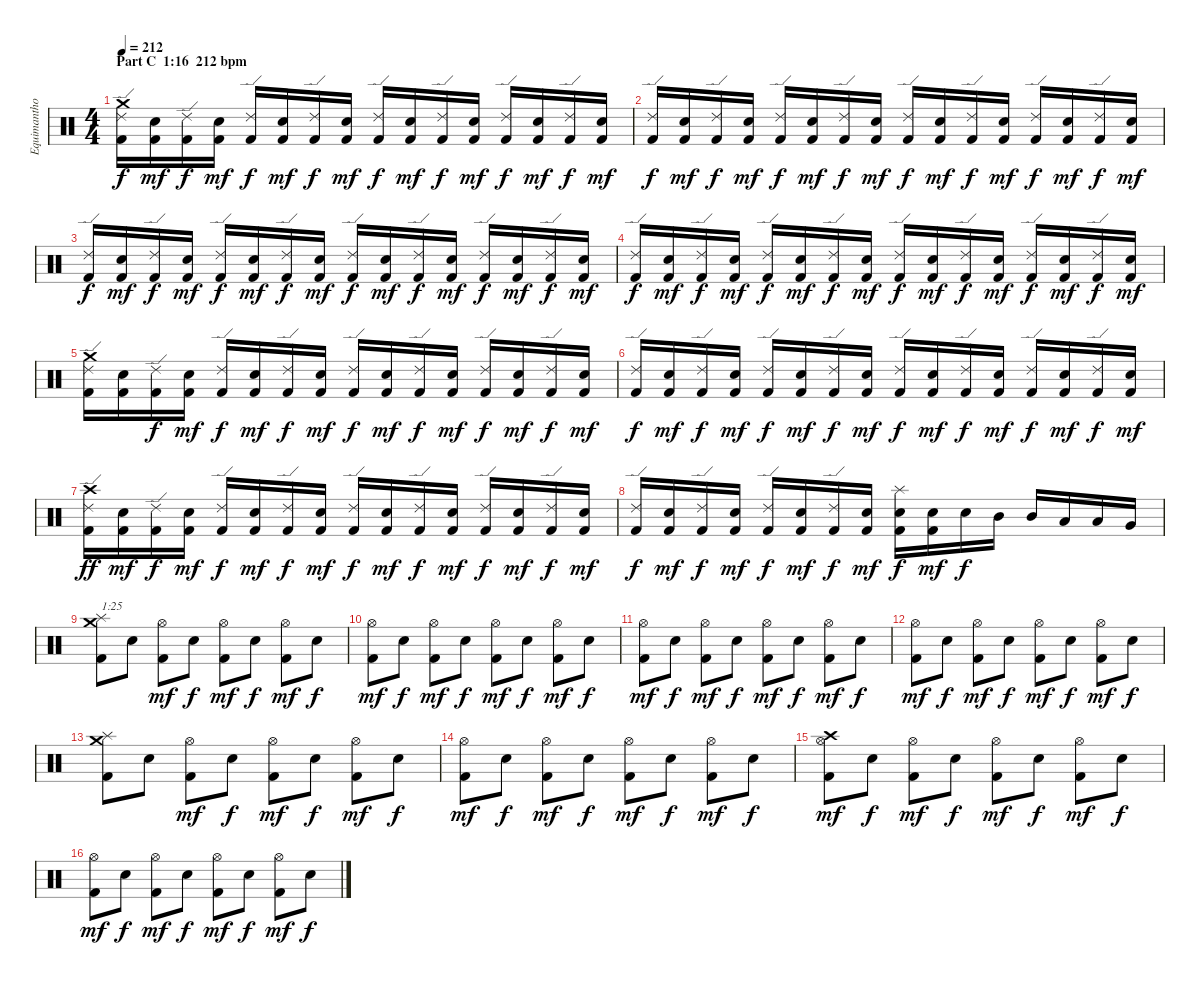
\track ("Equimanthorn" "Equimantho") {instrument percussion}
\staff {score}
\articulation defaults
\ts (4 4)
\section ("" "Part C  1:16  212 bpm")
\tempo 212
\clef neutral
\ks c
("Kick (hit) 2" "Ride (edge) 2" "Crash medium (hit)").16{dy f} ("Kick (hit) 2" "Electric Snare (hit)").16{dy mf} ("Kick (hit) 2" "Ride (edge) 2").16{dy f} ("Kick (hit) 2" "Electric Snare (hit)").16{dy mf} ("Kick (hit) 2" "Ride (edge) 2").16{dy f} ("Kick (hit) 2" "Electric Snare (hit)").16{dy mf} ("Kick (hit) 2" "Ride (edge) 2").16{dy f} ("Kick (hit) 2" "Electric Snare (hit)").16{dy mf} ("Kick (hit) 2" "Ride (edge) 2").16{dy f} ("Kick (hit) 2" "Electric Snare (hit)").16{dy mf} ("Kick (hit) 2" "Ride (edge) 2").16{dy f} ("Kick (hit) 2" "Electric Snare (hit)").16{dy mf} ("Kick (hit) 2" "Ride (edge) 2").16{dy f} ("Kick (hit) 2" "Electric Snare (hit)").16{dy mf} ("Kick (hit) 2" "Ride (edge) 2").16{dy f} ("Kick (hit) 2" "Electric Snare (hit)").16{dy mf} |
("Kick (hit) 2" "Ride (edge) 2").16{dy f} ("Kick (hit) 2" "Electric Snare (hit)").16{dy mf} ("Kick (hit) 2" "Ride (edge) 2").16{dy f} ("Kick (hit) 2" "Electric Snare (hit)").16{dy mf} ("Kick (hit) 2" "Ride (edge) 2").16{dy f} ("Kick (hit) 2" "Electric Snare (hit)").16{dy mf} ("Kick (hit) 2" "Ride (edge) 2").16{dy f} ("Kick (hit) 2" "Electric Snare (hit)").16{dy mf} ("Kick (hit) 2" "Ride (edge) 2").16{dy f} ("Kick (hit) 2" "Electric Snare (hit)").16{dy mf} ("Kick (hit) 2" "Ride (edge) 2").16{dy f} ("Kick (hit) 2" "Electric Snare (hit)").16{dy mf} ("Kick (hit) 2" "Ride (edge) 2").16{dy f} ("Kick (hit) 2" "Electric Snare (hit)").16{dy mf} ("Kick (hit) 2" "Ride (edge) 2").16{dy f} ("Kick (hit) 2" "Electric Snare (hit)").16{dy mf} |
("Kick (hit) 2" "Ride (edge) 2").16{dy f} ("Kick (hit) 2" "Electric Snare (hit)").16{dy mf} ("Kick (hit) 2" "Ride (edge) 2").16{dy f} ("Kick (hit) 2" "Electric Snare (hit)").16{dy mf} ("Kick (hit) 2" "Ride (edge) 2").16{dy f} ("Kick (hit) 2" "Electric Snare (hit)").16{dy mf} ("Kick (hit) 2" "Ride (edge) 2").16{dy f} ("Kick (hit) 2" "Electric Snare (hit)").16{dy mf} ("Kick (hit) 2" "Ride (edge) 2").16{dy f} ("Kick (hit) 2" "Electric Snare (hit)").16{dy mf} ("Kick (hit) 2" "Ride (edge) 2").16{dy f} ("Kick (hit) 2" "Electric Snare (hit)").16{dy mf} ("Kick (hit) 2" "Ride (edge) 2").16{dy f} ("Kick (hit) 2" "Electric Snare (hit)").16{dy mf} ("Kick (hit) 2" "Ride (edge) 2").16{dy f} ("Kick (hit) 2" "Electric Snare (hit)").16{dy mf} |
("Kick (hit) 2" "Ride (edge) 2").16{dy f} ("Kick (hit) 2" "Electric Snare (hit)").16{dy mf} ("Kick (hit) 2" "Ride (edge) 2").16{dy f} ("Kick (hit) 2" "Electric Snare (hit)").16{dy mf} ("Kick (hit) 2" "Ride (edge) 2").16{dy f} ("Kick (hit) 2" "Electric Snare (hit)").16{dy mf} ("Kick (hit) 2" "Ride (edge) 2").16{dy f} ("Kick (hit) 2" "Electric Snare (hit)").16{dy mf} ("Kick (hit) 2" "Ride (edge) 2").16{dy f} ("Kick (hit) 2" "Electric Snare (hit)").16{dy mf} ("Kick (hit) 2" "Ride (edge) 2").16{dy f} ("Kick (hit) 2" "Electric Snare (hit)").16{dy mf} ("Kick (hit) 2" "Ride (edge) 2").16{dy f} ("Kick (hit) 2" "Electric Snare (hit)").16{dy mf} ("Kick (hit) 2" "Ride (edge) 2").16{dy f} ("Kick (hit) 2" "Electric Snare (hit)").16{dy mf} |
("Kick (hit) 2" "Ride (edge) 2" "Crash medium (hit)").16 ("Kick (hit) 2" "Electric Snare (hit)").16 ("Kick (hit) 2" "Ride (edge) 2").16{dy f} ("Kick (hit) 2" "Electric Snare (hit)").16{dy mf} ("Kick (hit) 2" "Ride (edge) 2").16{dy f} ("Kick (hit) 2" "Electric Snare (hit)").16{dy mf} ("Kick (hit) 2" "Ride (edge) 2").16{dy f} ("Kick (hit) 2" "Electric Snare (hit)").16{dy mf} ("Kick (hit) 2" "Ride (edge) 2").16{dy f} ("Kick (hit) 2" "Electric Snare (hit)").16{dy mf} ("Kick (hit) 2" "Ride (edge) 2").16{dy f} ("Kick (hit) 2" "Electric Snare (hit)").16{dy mf} ("Kick (hit) 2" "Ride (edge) 2").16{dy f} ("Kick (hit) 2" "Electric Snare (hit)").16{dy mf} ("Kick (hit) 2" "Ride (edge) 2").16{dy f} ("Kick (hit) 2" "Electric Snare (hit)").16{dy mf} |
("Kick (hit) 2" "Ride (edge) 2").16{dy f} ("Kick (hit) 2" "Electric Snare (hit)").16{dy mf} ("Kick (hit) 2" "Ride (edge) 2").16{dy f} ("Kick (hit) 2" "Electric Snare (hit)").16{dy mf} ("Kick (hit) 2" "Ride (edge) 2").16{dy f} ("Kick (hit) 2" "Electric Snare (hit)").16{dy mf} ("Kick (hit) 2" "Ride (edge) 2").16{dy f} ("Kick (hit) 2" "Electric Snare (hit)").16{dy mf} ("Kick (hit) 2" "Ride (edge) 2").16{dy f} ("Kick (hit) 2" "Electric Snare (hit)").16{dy mf} ("Kick (hit) 2" "Ride (edge) 2").16{dy f} ("Kick (hit) 2" "Electric Snare (hit)").16{dy mf} ("Kick (hit) 2" "Ride (edge) 2").16{dy f} ("Kick (hit) 2" "Electric Snare (hit)").16{dy mf} ("Kick (hit) 2" "Ride (edge) 2").16{dy f} ("Kick (hit) 2" "Electric Snare (hit)").16{dy mf} |
("Kick (hit) 2" "Ride (edge) 2" "Crash high (hit)").16{dy ff} ("Kick (hit) 2" "Electric Snare (hit)").16{dy mf} ("Kick (hit) 2" "Ride (edge) 2").16{dy f} ("Kick (hit) 2" "Electric Snare (hit)").16{dy mf} ("Kick (hit) 2" "Ride (edge) 2").16{dy f} ("Kick (hit) 2" "Electric Snare (hit)").16{dy mf} ("Kick (hit) 2" "Ride (edge) 2").16{dy f} ("Kick (hit) 2" "Electric Snare (hit)").16{dy mf} ("Kick (hit) 2" "Ride (edge) 2").16{dy f} ("Kick (hit) 2" "Electric Snare (hit)").16{dy mf} ("Kick (hit) 2" "Ride (edge) 2").16{dy f} ("Kick (hit) 2" "Electric Snare (hit)").16{dy mf} ("Kick (hit) 2" "Ride (edge) 2").16{dy f} ("Kick (hit) 2" "Electric Snare (hit)").16{dy mf} ("Kick (hit) 2" "Ride (edge) 2").16{dy f} ("Kick (hit) 2" "Electric Snare (hit)").16{dy mf} |
("Kick (hit) 2" "Ride (edge) 2").16{dy f} ("Kick (hit) 2" "Electric Snare (hit)").16{dy mf} ("Kick (hit) 2" "Ride (edge) 2").16{dy f} ("Kick (hit) 2" "Electric Snare (hit)").16{dy mf} ("Kick (hit) 2" "Ride (edge) 2").16{dy f} ("Kick (hit) 2" "Electric Snare (hit)").16{dy mf} ("Kick (hit) 2" "Ride (edge) 2").16{dy f} ("Kick (hit) 2" "Electric Snare (hit)").16{dy mf} ("Kick (hit) 2" "Electric Snare (hit)" "Splash (hit)").16{dy f} ("Kick (hit) 2" "Electric Snare (hit)").16{dy mf} "Electric Snare (hit)".16{dy f} "Mid Tom (hit)".16 "Mid Tom (hit)".16 "Low Tom (hit)".16 "Low Tom (hit)".16 "Very Low Tom (hit)".16 |
("Kick (hit) 2" "Splash (hit)" "Crash medium (hit)").8{txt "1:25"} "Electric Snare (hit)".8 ("Kick (hit) 2" "Hi-Hat (open)").8{dy mf} "Electric Snare (hit)".8{dy f} ("Kick (hit) 2" "Hi-Hat (open)").8{dy mf} "Electric Snare (hit)".8{dy f} ("Kick (hit) 2" "Hi-Hat (open)").8{dy mf} "Electric Snare (hit)".8{dy f} |
("Kick (hit) 2" "Hi-Hat (open)").8{dy mf} "Electric Snare (hit)".8{dy f} ("Kick (hit) 2" "Hi-Hat (open)").8{dy mf} "Electric Snare (hit)".8{dy f} ("Kick (hit) 2" "Hi-Hat (open)").8{dy mf} "Electric Snare (hit)".8{dy f} ("Kick (hit) 2" "Hi-Hat (open)").8{dy mf} "Electric Snare (hit)".8{dy f} |
("Kick (hit) 2" "Hi-Hat (open)").8{dy mf} "Electric Snare (hit)".8{dy f} ("Kick (hit) 2" "Hi-Hat (open)").8{dy mf} "Electric Snare (hit)".8{dy f} ("Kick (hit) 2" "Hi-Hat (open)").8{dy mf} "Electric Snare (hit)".8{dy f} ("Kick (hit) 2" "Hi-Hat (open)").8{dy mf} "Electric Snare (hit)".8{dy f} |
("Kick (hit) 2" "Hi-Hat (open)").8{dy mf} "Electric Snare (hit)".8{dy f} ("Kick (hit) 2" "Hi-Hat (open)").8{dy mf} "Electric Snare (hit)".8{dy f} ("Kick (hit) 2" "Hi-Hat (open)").8{dy mf} "Electric Snare (hit)".8{dy f} ("Kick (hit) 2" "Hi-Hat (open)").8{dy mf} "Electric Snare (hit)".8{dy f} |
("Kick (hit) 2" "Splash (hit)" "Crash medium (hit)").8 "Electric Snare (hit)".8 ("Kick (hit) 2" "Hi-Hat (open)").8{dy mf} "Electric Snare (hit)".8{dy f} ("Kick (hit) 2" "Hi-Hat (open)").8{dy mf} "Electric Snare (hit)".8{dy f} ("Kick (hit) 2" "Hi-Hat (open)").8{dy mf} "Electric Snare (hit)".8{dy f} |
("Kick (hit) 2" "Hi-Hat (open)").8{dy mf} "Electric Snare (hit)".8{dy f} ("Kick (hit) 2" "Hi-Hat (open)").8{dy mf} "Electric Snare (hit)".8{dy f} ("Kick (hit) 2" "Hi-Hat (open)").8{dy mf} "Electric Snare (hit)".8{dy f} ("Kick (hit) 2" "Hi-Hat (open)").8{dy mf} "Electric Snare (hit)".8{dy f} |
("Kick (hit) 2" "Hi-Hat (open)" "Crash high (hit)").8{dy mf} "Electric Snare (hit)".8{dy f} ("Kick (hit) 2" "Hi-Hat (open)").8{dy mf} "Electric Snare (hit)".8{dy f} ("Kick (hit) 2" "Hi-Hat (open)").8{dy mf} "Electric Snare (hit)".8{dy f} ("Kick (hit) 2" "Hi-Hat (open)").8{dy mf} "Electric Snare (hit)".8{dy f} |
("Kick (hit) 2" "Hi-Hat (open)").8{dy mf} "Electric Snare (hit)".8{dy f} ("Kick (hit) 2" "Hi-Hat (open)").8{dy mf} "Electric Snare (hit)".8{dy f} ("Kick (hit) 2" "Hi-Hat (open)").8{dy mf} "Electric Snare (hit)".8{dy f} ("Kick (hit) 2" "Hi-Hat (open)").8{dy mf} "Electric Snare (hit)".8{dy f}
